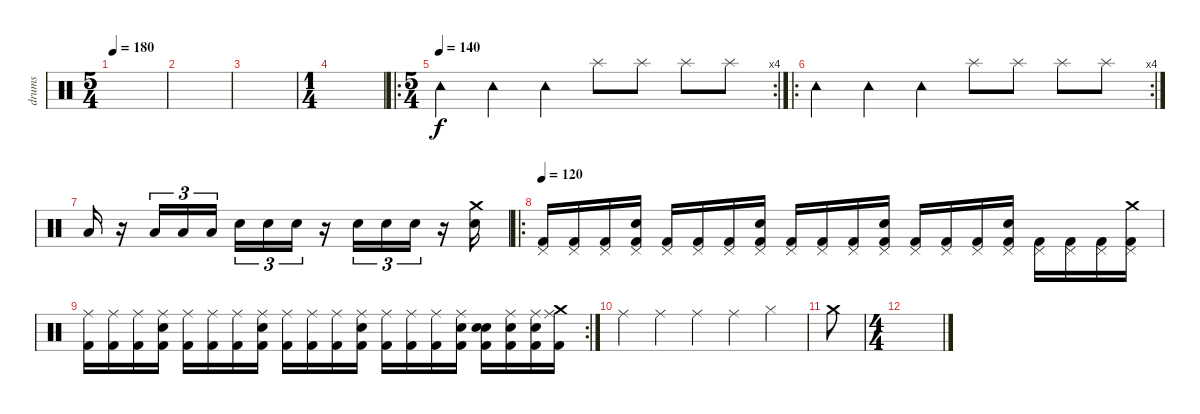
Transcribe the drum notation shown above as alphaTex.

\track ("drums" "drums") {instrument percussion}
\staff {score}
\articulation defaults
\ts (5 4)
\tempo 180
\clef neutral
\ks c
|
|
|
\ts (1 4)
|
\ro
\rc 4
\ts (5 4)
\tempo (140)
"Tambourine (hit)".4 "Tambourine (hit)".4 "Tambourine (hit)".4 "Splash (hit)".8 "Splash (hit)".8 "Splash (hit)".8 "Splash (hit)".8 |
\ro
\rc 4 "Tambourine (hit)".4 "Tambourine (hit)".4 "Tambourine (hit)".4 "Splash (hit)".8 "Splash (hit)".8 "Splash (hit)".8 "Splash (hit)".8
|
"Low Tom (hit)".16 r.16 "Low Tom (hit)".16{tu (3 2)} "Low Tom (hit)".16{tu (3 2)} "Low Tom (hit)".16{tu (3 2)} "Snare (hit) 2".16{tu (3 2)} "Snare (hit) 2".16{tu (3 2)} "Electric Snare (hit)".16{tu (3 2)} r.16 "Electric Snare (hit)".16{tu (3 2)} "Electric Snare (hit)".16{tu (3 2)} "Electric Snare (hit)".16{tu (3 2)} r.16 ("Crash medium (hit)" "Snare (hit) 2").16 |
\ro
\tempo 120
("Pedal Hi-Hat (hit)" "Kick (hit) 2").16 ("Pedal Hi-Hat (hit)" "Kick (hit) 2").16 ("Pedal Hi-Hat (hit)" "Kick (hit) 2").16 ("Pedal Hi-Hat (hit)" "Electric Snare (hit)" "Kick (hit) 2").16 ("Pedal Hi-Hat (hit)" "Kick (hit) 2").16 ("Pedal Hi-Hat (hit)" "Kick (hit) 2").16 ("Pedal Hi-Hat (hit)" "Kick (hit) 2").16 ("Pedal Hi-Hat (hit)" "Electric Snare (hit)" "Kick (hit) 2").16 ("Pedal Hi-Hat (hit)" "Kick (hit) 2").16 ("Pedal Hi-Hat (hit)" "Kick (hit) 2").16 ("Pedal Hi-Hat (hit)" "Kick (hit) 2").16 ("Pedal Hi-Hat (hit)" "Electric Snare (hit)" "Kick (hit) 2").16 ("Pedal Hi-Hat (hit)" "Kick (hit) 2").16 ("Pedal Hi-Hat (hit)" "Kick (hit) 2").16 ("Pedal Hi-Hat (hit)" "Kick (hit) 2").16 ("Pedal Hi-Hat (hit)" "Electric Snare (hit)" "Kick (hit) 2").16 ("Pedal Hi-Hat (hit)" "Kick (hit) 2").16 ("Pedal Hi-Hat (hit)" "Kick (hit) 2").16 ("Pedal Hi-Hat (hit)" "Kick (hit) 2").16 ("Pedal Hi-Hat (hit)" "Crash medium (hit)" "Kick (hit) 2").16 |
\rc 2
("Ride (middle)" "Kick (hit) 2").16 ("Ride (middle)" "Kick (hit) 2").16 ("Ride (middle)" "Kick (hit) 2").16 ("Ride (middle)" "Electric Snare (hit)" "Kick (hit) 2").16 ("Ride (middle)" "Kick (hit) 2").16 ("Ride (middle)" "Kick (hit) 2").16 ("Ride (middle)" "Kick (hit) 2").16 ("Ride (middle)" "Electric Snare (hit)" "Kick (hit) 2").16 ("Ride (middle)" "Kick (hit) 2").16 ("Ride (middle)" "Kick (hit) 2").16 ("Ride (middle)" "Kick (hit) 2").16 ("Ride (middle)" "Electric Snare (hit)" "Kick (hit) 2").16 ("Ride (middle)" "Kick (hit) 2").16 ("Ride (middle)" "Kick (hit) 2").16 ("Ride (middle)" "Kick (hit) 2").16 ("Ride (middle)" "Electric Snare (hit)" "Kick (hit) 2").16 ("Snare (hit)" "Snare (hit) 2" "Kick (hit) 2").16 ("Ride (middle)" "Snare (hit) 2" "Kick (hit) 2").16 ("Ride (middle)" "Snare (hit) 2" "Kick (hit) 2").16 ("Ride (middle)" "Crash medium (hit)" "Kick (hit) 2").16 |
"Ride (middle)".4 "Ride (middle)".4 "Ride (middle)".4 "Ride (middle)".4 "Hi-Hat (closed)".4 |
"Crash medium (hit)".8 |
\ts (4 4)
